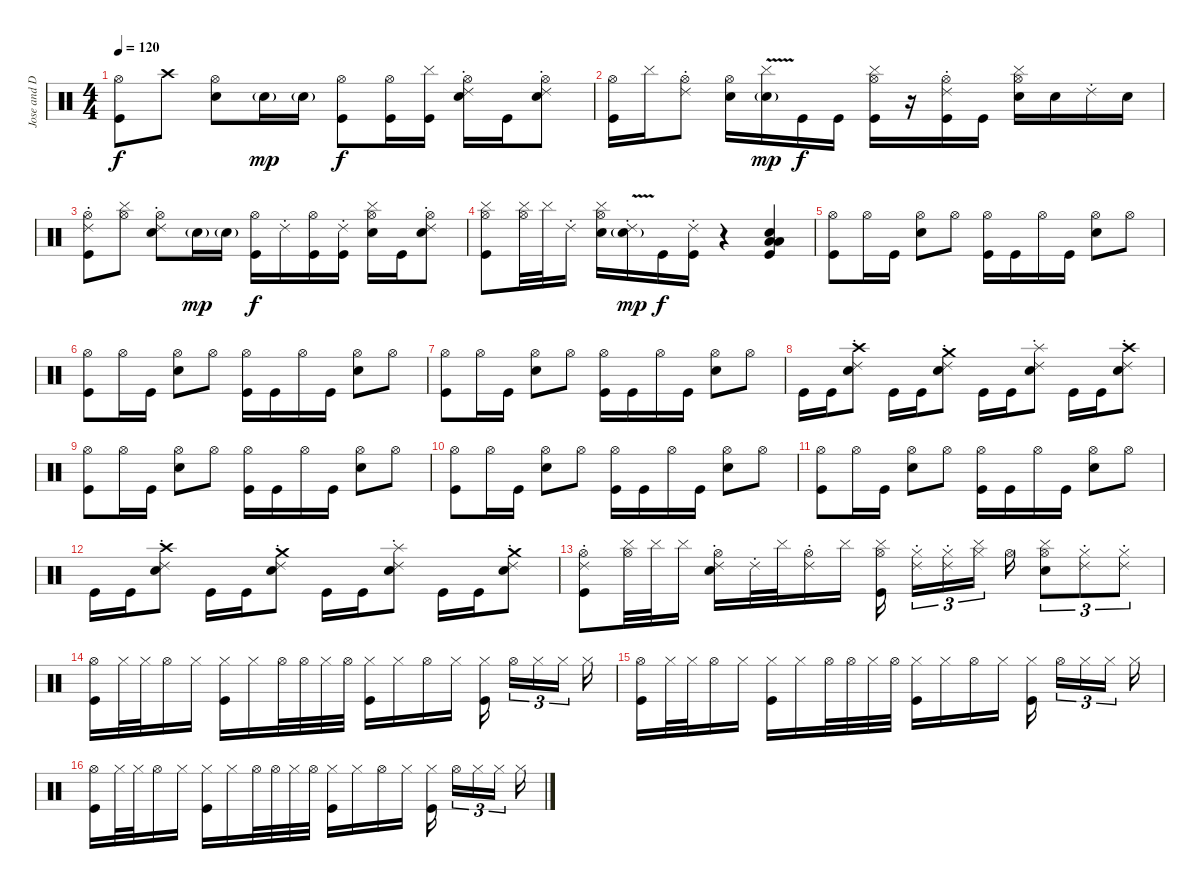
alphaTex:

\track ("Jose and Dj" "Jose and D") {instrument percussion}
\staff {score}
\articulation defaults
\ts (4 4)
\tempo 120
\clef neutral
\ks c
("Hi-Hat (open)" "Kick (hit)").8{dy f} "Crash high (hit)".8 ("Hi-Hat (open)" "Snare (hit) 2").8 "Snare (hit) 2"{g}.16{dy mp} "Snare (hit) 2"{g}.16 ("Hi-Hat (open)" "Kick (hit)").8{dy f} ("Hi-Hat (open)" "Kick (hit)").16 ("Cymbal (hit)" "Kick (hit)").16 ("Hi-Hat (open)" "Snare (hit) 2" "Ride (choke) 2").16 "Kick (hit)".16 ("Hi-Hat (open)" "Snare (hit) 2" "Ride (choke) 2").8 |
("Hi-Hat (open)" "Kick (hit)").16 "Cymbal (hit)".16 ("Hi-Hat (open)" "Ride (choke) 2").8 ("Hi-Hat (open)" "Snare (hit) 2").16 ("Snare (hit) 2"{v g} "Cymbal (hit)"{v}).16{dy mp} "Kick (hit)".16{dy f} "Kick (hit)".16 ("Hi-Hat (open)" "Cymbal (hit)" "Kick (hit)").16 r.16 ("Hi-Hat (open)" "Ride (choke) 2" "Kick (hit)").16 "Kick (hit)".16 ("Hi-Hat (open)" "Snare (hit) 2" "Cymbal (hit)").16 "Snare (hit) 2".16 "Ride (choke) 2".16 "Snare (hit) 2".16 |
("Hi-Hat (open)" "Ride (choke) 2" "Kick (hit)").8 ("Hi-Hat (open)" "Cymbal (hit)").8 ("Hi-Hat (open)" "Snare (hit) 2" "Ride (choke) 2").8 "Snare (hit) 2"{g}.16{dy mp} "Snare (hit) 2"{g}.16 ("Hi-Hat (open)" "Kick (hit)").16{dy f} "Ride (choke) 2".16 ("Hi-Hat (open)" "Kick (hit)").16 ("Ride (choke) 2" "Kick (hit)").16 ("Hi-Hat (open)" "Snare (hit) 2" "Cymbal (hit)").16 "Kick (hit)".16 ("Hi-Hat (open)" "Snare (hit) 2" "Ride (choke) 2").8 |
("Hi-Hat (open)" "Cymbal (hit)" "Kick (hit)").8 ("Hi-Hat (open)" "Cymbal (hit)").32 "Cymbal (hit)".32 "Ride (choke) 2".16 ("Hi-Hat (open)" "Snare (hit) 2" "Cymbal (hit)").16 ("Snare (hit) 2"{v g} "Ride (choke) 2"{v}).16{dy mp} "Kick (hit)".16{dy f} ("Ride (choke) 2" "Kick (hit)").16 r.4 ("Snare (hit) 2" "Low Floor Tom (hit)" "Low Floor Tom (hit)" "Kick (hit)").4 |
("Hi-Hat (open)" "Kick (hit)").8 "Hi-Hat (open)".16 "Kick (hit)".16 ("Hi-Hat (open)" "Snare (hit) 2").8 "Hi-Hat (open)".8 ("Hi-Hat (open)" "Kick (hit)").16 "Kick (hit)".16 "Hi-Hat (open)".16 "Kick (hit)".16 ("Hi-Hat (open)" "Snare (hit) 2").8 "Hi-Hat (open)".8 |
("Hi-Hat (open)" "Kick (hit)").8 "Hi-Hat (open)".16 "Kick (hit)".16 ("Hi-Hat (open)" "Snare (hit) 2").8 "Hi-Hat (open)".8 ("Hi-Hat (open)" "Kick (hit)").16 "Kick (hit)".16 "Hi-Hat (open)".16 "Kick (hit)".16 ("Hi-Hat (open)" "Snare (hit) 2").8 "Hi-Hat (open)".8 |
("Hi-Hat (open)" "Kick (hit)").8 "Hi-Hat (open)".16 "Kick (hit)".16 ("Hi-Hat (open)" "Snare (hit) 2").8 "Hi-Hat (open)".8 ("Hi-Hat (open)" "Kick (hit)").16 "Kick (hit)".16 "Hi-Hat (open)".16 "Kick (hit)".16 ("Hi-Hat (open)" "Snare (hit) 2").8 "Hi-Hat (open)".8 |
"Kick (hit)".16 "Kick (hit)".16 ("Crash high (hit)" "Snare (hit) 2" "Ride (choke) 2").8 "Kick (hit)".16 "Kick (hit)".16 ("Crash medium (hit)" "Snare (hit) 2" "Ride (choke) 2").8 "Kick (hit)".16 "Kick (hit)".16 ("Splash (hit)" "Snare (hit) 2" "Ride (choke) 2").8 "Kick (hit)".16 "Kick (hit)".16 ("Crash high (hit)" "Snare (hit) 2" "Ride (choke) 2").8 |
("Hi-Hat (open)" "Kick (hit)").8 "Hi-Hat (open)".16 "Kick (hit)".16 ("Hi-Hat (open)" "Snare (hit) 2").8 "Hi-Hat (open)".8 ("Hi-Hat (open)" "Kick (hit)").16 "Kick (hit)".16 "Hi-Hat (open)".16 "Kick (hit)".16 ("Hi-Hat (open)" "Snare (hit) 2").8 "Hi-Hat (open)".8 |
("Hi-Hat (open)" "Kick (hit)").8 "Hi-Hat (open)".16 "Kick (hit)".16 ("Hi-Hat (open)" "Snare (hit) 2").8 "Hi-Hat (open)".8 ("Hi-Hat (open)" "Kick (hit)").16 "Kick (hit)".16 "Hi-Hat (open)".16 "Kick (hit)".16 ("Hi-Hat (open)" "Snare (hit) 2").8 "Hi-Hat (open)".8 |
("Hi-Hat (open)" "Kick (hit)").8 "Hi-Hat (open)".16 "Kick (hit)".16 ("Hi-Hat (open)" "Snare (hit) 2").8 "Hi-Hat (open)".8 ("Hi-Hat (open)" "Kick (hit)").16 "Kick (hit)".16 "Hi-Hat (open)".16 "Kick (hit)".16 ("Hi-Hat (open)" "Snare (hit) 2").8 "Hi-Hat (open)".8 |
"Kick (hit)".16 "Kick (hit)".16 ("Crash high (hit)" "Snare (hit) 2" "Ride (choke) 2").8 "Kick (hit)".16 "Kick (hit)".16 ("Crash medium (hit)" "Snare (hit) 2" "Ride (choke) 2").8 "Kick (hit)".16 "Kick (hit)".16 ("Splash (hit)" "Snare (hit) 2" "Ride (choke) 2").8 "Kick (hit)".16 "Kick (hit)".16 ("Crash medium (hit)" "Snare (hit) 2" "Ride (choke) 2").8 |
("Hi-Hat (open)" "Ride (choke) 2" "Kick (hit)").8 ("Hi-Hat (open)" "Cymbal (hit)").32 "Cymbal (hit)".32 "Cymbal (hit)".16 ("Hi-Hat (open)" "Ride (choke) 2" "Snare (hit) 2").16 "Ride (choke) 2".32 "Cymbal (hit)".32 ("Hi-Hat (open)" "Ride (choke) 2").16 "Cymbal (hit)".16 ("Hi-Hat (open)" "Cymbal (hit)" "Kick (hit)").16 ("Hi-Hat (closed)" "Ride (choke) 2").16{tu (3 2)} ("Hi-Hat (closed)" "Ride (choke) 2").16{tu (3 2)} ("Hi-Hat (closed)" "Cymbal (hit)").16{tu (3 2)} "Hi-Hat (open)".16 ("Hi-Hat (open)" "Cymbal (hit)" "Snare (hit) 2").8{tu (3 2)} ("Hi-Hat (closed)" "Ride (choke) 2").8{tu (3 2)} ("Hi-Hat (closed)" "Ride (choke) 2").8{tu (3 2)} |
("Hi-Hat (open)" "Kick (hit)").16 "Hi-Hat (closed)".32 "Hi-Hat (closed)".32 "Hi-Hat (open)".16 "Hi-Hat (closed)".16 ("Hi-Hat (closed)" "Kick (hit)").16 "Hi-Hat (closed)".16 "Hi-Hat (open)".32 "Hi-Hat (open)".32 "Hi-Hat (closed)".32 "Hi-Hat (open)".32 ("Hi-Hat (closed)" "Kick (hit)").16 "Hi-Hat (closed)".16 "Hi-Hat (open)".16 "Hi-Hat (closed)".16 ("Hi-Hat (closed)" "Kick (hit)").16 "Hi-Hat (open)".16{tu (3 2)} "Hi-Hat (closed)".16{tu (3 2)} "Hi-Hat (closed)".16{tu (3 2)} "Hi-Hat (closed)".16 |
("Hi-Hat (open)" "Kick (hit)").16 "Hi-Hat (closed)".32 "Hi-Hat (closed)".32 "Hi-Hat (open)".16 "Hi-Hat (closed)".16 ("Hi-Hat (closed)" "Kick (hit)").16 "Hi-Hat (closed)".16 "Hi-Hat (open)".32 "Hi-Hat (open)".32 "Hi-Hat (closed)".32 "Hi-Hat (open)".32 ("Hi-Hat (closed)" "Kick (hit)").16 "Hi-Hat (closed)".16 "Hi-Hat (open)".16 "Hi-Hat (closed)".16 ("Hi-Hat (closed)" "Kick (hit)").16 "Hi-Hat (open)".16{tu (3 2)} "Hi-Hat (closed)".16{tu (3 2)} "Hi-Hat (closed)".16{tu (3 2)} "Hi-Hat (closed)".16 |
("Hi-Hat (open)" "Kick (hit)").16 "Hi-Hat (closed)".32 "Hi-Hat (closed)".32 "Hi-Hat (open)".16 "Hi-Hat (closed)".16 ("Hi-Hat (closed)" "Kick (hit)").16 "Hi-Hat (closed)".16 "Hi-Hat (open)".32 "Hi-Hat (open)".32 "Hi-Hat (closed)".32 "Hi-Hat (open)".32 ("Hi-Hat (closed)" "Kick (hit)").16 "Hi-Hat (closed)".16 "Hi-Hat (open)".16 "Hi-Hat (closed)".16 ("Hi-Hat (closed)" "Kick (hit)").16 "Hi-Hat (open)".16{tu (3 2)} "Hi-Hat (closed)".16{tu (3 2)} "Hi-Hat (closed)".16{tu (3 2)} "Hi-Hat (closed)".16
